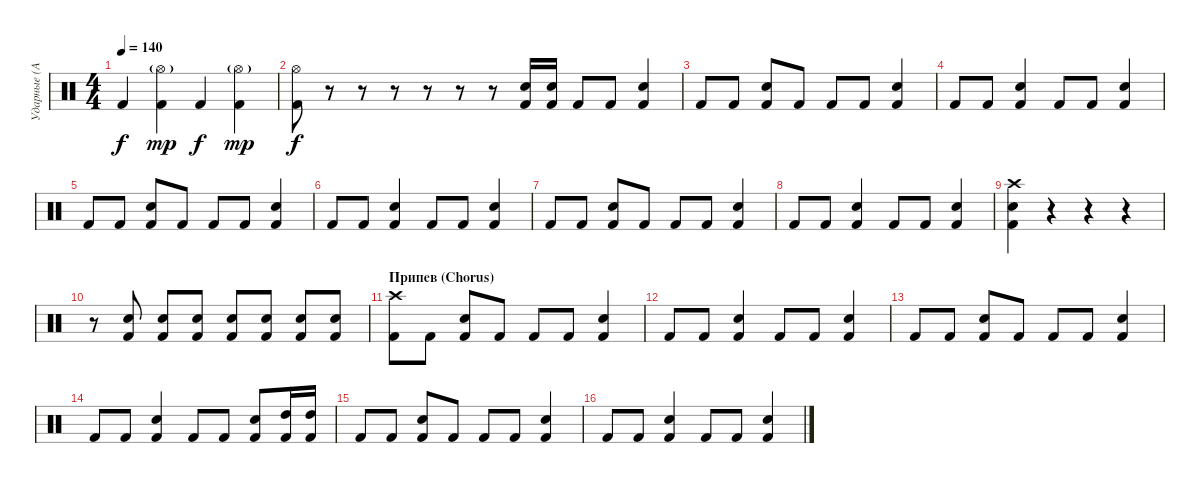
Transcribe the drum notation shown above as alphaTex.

\track ("Ударные (Алексей Барзилович)" "Ударные (А") {instrument percussion}
\staff {score}
\articulation defaults
\ts (4 4)
\tempo 140
\clef neutral
\ks c "Kick (hit) 2".4{dy f}
("Hi-Hat (open)"{g} "Kick (hit) 2").4{dy mp} "Kick (hit) 2".4{dy f} ("Hi-Hat (open)"{g} "Kick (hit) 2").4{dy mp} |
("Hi-Hat (open)" "Kick (hit) 2").8{dy f} r.8 r.8 r.8 r.8 r.8 r.8 ("Electric Snare (hit)" "Kick (hit) 2").16 ("Electric Snare (hit)" "Kick (hit) 2").16 "Kick (hit) 2".8 "Kick (hit) 2".8 ("Electric Snare (hit)" "Kick (hit) 2").4 |
"Kick (hit) 2".8 "Kick (hit) 2".8 ("Electric Snare (hit)" "Kick (hit) 2").8 "Kick (hit) 2".8 "Kick (hit) 2".8 "Kick (hit) 2".8 ("Electric Snare (hit)" "Kick (hit) 2").4 |
"Kick (hit) 2".8 "Kick (hit) 2".8 ("Electric Snare (hit)" "Kick (hit) 2").4 "Kick (hit) 2".8 "Kick (hit) 2".8 ("Electric Snare (hit)" "Kick (hit) 2").4 |
"Kick (hit) 2".8 "Kick (hit) 2".8 ("Electric Snare (hit)" "Kick (hit) 2").8 "Kick (hit) 2".8 "Kick (hit) 2".8 "Kick (hit) 2".8 ("Electric Snare (hit)" "Kick (hit) 2").4 |
"Kick (hit) 2".8 "Kick (hit) 2".8 ("Electric Snare (hit)" "Kick (hit) 2").4 "Kick (hit) 2".8 "Kick (hit) 2".8 ("Electric Snare (hit)" "Kick (hit) 2").4 |
"Kick (hit) 2".8 "Kick (hit) 2".8 ("Electric Snare (hit)" "Kick (hit) 2").8 "Kick (hit) 2".8 "Kick (hit) 2".8 "Kick (hit) 2".8 ("Electric Snare (hit)" "Kick (hit) 2").4 |
"Kick (hit) 2".8 "Kick (hit) 2".8 ("Electric Snare (hit)" "Kick (hit) 2").4 "Kick (hit) 2".8 "Kick (hit) 2".8 ("Electric Snare (hit)" "Kick (hit) 2").4 |
("Crash high (hit)" "Electric Snare (hit)" "Kick (hit) 2").4 r.4 r.4 r.4 |
r.8 ("Electric Snare (hit)" "Kick (hit) 2").8 ("Electric Snare (hit)" "Kick (hit) 2").8 ("Electric Snare (hit)" "Kick (hit) 2").8 ("Electric Snare (hit)" "Kick (hit) 2").8 ("Electric Snare (hit)" "Kick (hit) 2").8 ("Electric Snare (hit)" "Kick (hit) 2").8 ("Electric Snare (hit)" "Kick (hit) 2").8 |
\section ("" "Припев (Chorus)")
("Crash high (hit)" "Kick (hit) 2").8 "Kick (hit) 2".8 ("Electric Snare (hit)" "Kick (hit) 2").8 "Kick (hit) 2".8 "Kick (hit) 2".8 "Kick (hit) 2".8 ("Electric Snare (hit)" "Kick (hit) 2").4 |
"Kick (hit) 2".8 "Kick (hit) 2".8 ("Electric Snare (hit)" "Kick (hit) 2").4 "Kick (hit) 2".8 "Kick (hit) 2".8 ("Electric Snare (hit)" "Kick (hit) 2").4 |
"Kick (hit) 2".8 "Kick (hit) 2".8 ("Electric Snare (hit)" "Kick (hit) 2").8 "Kick (hit) 2".8 "Kick (hit) 2".8 "Kick (hit) 2".8 ("Electric Snare (hit)" "Kick (hit) 2").4 |
"Kick (hit) 2".8 "Kick (hit) 2".8 ("Electric Snare (hit)" "Kick (hit) 2").4 "Kick (hit) 2".8 "Kick (hit) 2".8 ("Electric Snare (hit)" "Kick (hit) 2").8 ("High Tom (hit)" "Kick (hit) 2").16 ("High Tom (hit)" "Kick (hit) 2").16 |
"Kick (hit) 2".8 "Kick (hit) 2".8 ("Electric Snare (hit)" "Kick (hit) 2").8 "Kick (hit) 2".8 "Kick (hit) 2".8 "Kick (hit) 2".8 ("Electric Snare (hit)" "Kick (hit) 2").4 |
"Kick (hit) 2".8 "Kick (hit) 2".8 ("Electric Snare (hit)" "Kick (hit) 2").4 "Kick (hit) 2".8 "Kick (hit) 2".8 ("Electric Snare (hit)" "Kick (hit) 2").4
